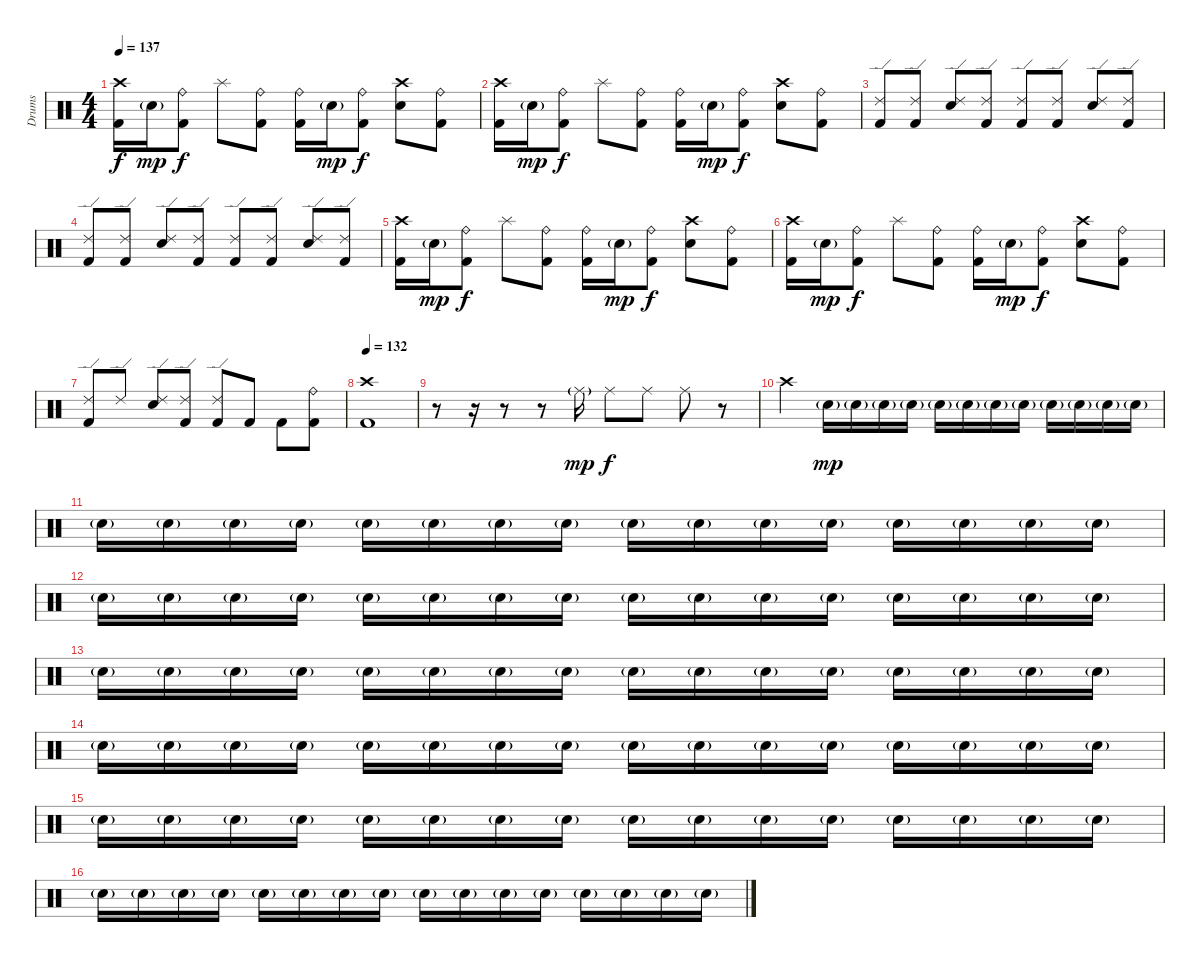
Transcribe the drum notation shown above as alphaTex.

\track ("Drums" "Drums") {instrument percussion}
\staff {score}
\articulation defaults
\ts (4 4)
\tempo 137
\clef neutral
\ks c
("Crash high (hit)" "Kick (hit) 2").16{dy f} "Snare (hit) 2"{g}.16{dy mp} ("Ride (bell)" "Kick (hit) 2").8{dy f} "Splash (hit)".8 ("Ride (bell)" "Kick (hit) 2").8 ("Ride (bell)" "Kick (hit) 2").16 "Snare (hit) 2"{g}.16{dy mp} ("Ride (bell)" "Kick (hit) 2").8{dy f} ("Crash high (hit)" "Snare (hit) 2").8 ("Ride (bell)" "Kick (hit) 2").8 |
("Crash high (hit)" "Kick (hit) 2").16 "Snare (hit) 2"{g}.16{dy mp} ("Ride (bell)" "Kick (hit) 2").8{dy f} "Splash (hit)".8 ("Ride (bell)" "Kick (hit) 2").8 ("Ride (bell)" "Kick (hit) 2").16 "Snare (hit) 2"{g}.16{dy mp} ("Ride (bell)" "Kick (hit) 2").8{dy f} ("Crash high (hit)" "Snare (hit) 2").8 ("Ride (bell)" "Kick (hit) 2").8 |
("Ride (edge) 2" "Kick (hit) 2").8 ("Ride (edge) 2" "Kick (hit) 2").8 ("Ride (edge) 2" "Snare (hit) 2").8 ("Ride (edge) 2" "Kick (hit) 2").8 ("Ride (edge) 2" "Kick (hit) 2").8 ("Ride (edge) 2" "Kick (hit) 2").8 ("Ride (edge) 2" "Snare (hit) 2").8 ("Ride (edge) 2" "Kick (hit) 2").8 |
("Ride (edge) 2" "Kick (hit) 2").8 ("Ride (edge) 2" "Kick (hit) 2").8 ("Ride (edge) 2" "Snare (hit) 2").8 ("Ride (edge) 2" "Kick (hit) 2").8 ("Ride (edge) 2" "Kick (hit) 2").8 ("Ride (edge) 2" "Kick (hit) 2").8 ("Ride (edge) 2" "Snare (hit) 2").8 ("Ride (edge) 2" "Kick (hit) 2").8 |
("Crash high (hit)" "Kick (hit) 2").16 "Snare (hit) 2"{g}.16{dy mp} ("Ride (bell)" "Kick (hit) 2").8{dy f} "Splash (hit)".8 ("Ride (bell)" "Kick (hit) 2").8 ("Ride (bell)" "Kick (hit) 2").16 "Snare (hit) 2"{g}.16{dy mp} ("Ride (bell)" "Kick (hit) 2").8{dy f} ("Crash high (hit)" "Snare (hit) 2").8 ("Ride (bell)" "Kick (hit) 2").8 |
("Crash high (hit)" "Kick (hit) 2").16 "Snare (hit) 2"{g}.16{dy mp} ("Ride (bell)" "Kick (hit) 2").8{dy f} "Splash (hit)".8 ("Ride (bell)" "Kick (hit) 2").8 ("Ride (bell)" "Kick (hit) 2").16 "Snare (hit) 2"{g}.16{dy mp} ("Ride (bell)" "Kick (hit) 2").8{dy f} ("Crash high (hit)" "Snare (hit) 2").8 ("Ride (bell)" "Kick (hit) 2").8 |
("Ride (edge) 2" "Kick (hit) 2").8 "Ride (edge) 2".8 ("Ride (edge) 2" "Snare (hit) 2").8 ("Ride (edge) 2" "Kick (hit) 2").8 ("Ride (edge) 2" "Kick (hit) 2").8 "Kick (hit) 2".8 "Kick (hit) 2".8 ("Ride (bell)" "Kick (hit) 2").8 |
\tempo 132
("Crash high (hit)" "Kick (hit) 2").1 |
r.8 r.16 r.8 r.8 "Ride (middle)"{g}.16{dy mp} "Ride (middle)".8{dy f} "Ride (middle)".8 "Ride (middle)".8 r.8 |
"Crash high (hit)".4 "Snare (hit) 2"{g}.16{dy mp volume 8} "Snare (hit) 2"{g}.16 "Snare (hit) 2"{g}.16 "Snare (hit) 2"{g}.16 "Snare (hit) 2"{g}.16 "Snare (hit) 2"{g}.16 "Snare (hit) 2"{g}.16 "Snare (hit) 2"{g}.16 "Snare (hit) 2"{g}.16 "Snare (hit) 2"{g}.16 "Snare (hit) 2"{g}.16 "Snare (hit) 2"{g}.16 |
"Snare (hit) 2"{g}.16 "Snare (hit) 2"{g}.16 "Snare (hit) 2"{g}.16 "Snare (hit) 2"{g}.16 "Snare (hit) 2"{g}.16 "Snare (hit) 2"{g}.16 "Snare (hit) 2"{g}.16 "Snare (hit) 2"{g}.16 "Snare (hit) 2"{g}.16 "Snare (hit) 2"{g}.16 "Snare (hit) 2"{g}.16 "Snare (hit) 2"{g}.16 "Snare (hit) 2"{g}.16 "Snare (hit) 2"{g}.16 "Snare (hit) 2"{g}.16 "Snare (hit) 2"{g}.16 |
"Snare (hit) 2"{g}.16 "Snare (hit) 2"{g}.16 "Snare (hit) 2"{g}.16 "Snare (hit) 2"{g}.16 "Snare (hit) 2"{g}.16 "Snare (hit) 2"{g}.16 "Snare (hit) 2"{g}.16 "Snare (hit) 2"{g}.16 "Snare (hit) 2"{g}.16 "Snare (hit) 2"{g}.16 "Snare (hit) 2"{g}.16 "Snare (hit) 2"{g}.16 "Snare (hit) 2"{g}.16 "Snare (hit) 2"{g}.16 "Snare (hit) 2"{g}.16 "Snare (hit) 2"{g}.16 |
"Snare (hit) 2"{g}.16 "Snare (hit) 2"{g}.16 "Snare (hit) 2"{g}.16 "Snare (hit) 2"{g}.16 "Snare (hit) 2"{g}.16 "Snare (hit) 2"{g}.16 "Snare (hit) 2"{g}.16 "Snare (hit) 2"{g}.16 "Snare (hit) 2"{g}.16 "Snare (hit) 2"{g}.16 "Snare (hit) 2"{g}.16 "Snare (hit) 2"{g}.16 "Snare (hit) 2"{g}.16 "Snare (hit) 2"{g}.16 "Snare (hit) 2"{g}.16 "Snare (hit) 2"{g}.16 |
"Snare (hit) 2"{g}.16 "Snare (hit) 2"{g}.16 "Snare (hit) 2"{g}.16 "Snare (hit) 2"{g}.16 "Snare (hit) 2"{g}.16 "Snare (hit) 2"{g}.16 "Snare (hit) 2"{g}.16 "Snare (hit) 2"{g}.16 "Snare (hit) 2"{g}.16 "Snare (hit) 2"{g}.16 "Snare (hit) 2"{g}.16 "Snare (hit) 2"{g}.16 "Snare (hit) 2"{g}.16 "Snare (hit) 2"{g}.16 "Snare (hit) 2"{g}.16 "Snare (hit) 2"{g}.16 |
"Snare (hit) 2"{g}.16 "Snare (hit) 2"{g}.16 "Snare (hit) 2"{g}.16 "Snare (hit) 2"{g}.16 "Snare (hit) 2"{g}.16 "Snare (hit) 2"{g}.16 "Snare (hit) 2"{g}.16 "Snare (hit) 2"{g}.16 "Snare (hit) 2"{g}.16 "Snare (hit) 2"{g}.16 "Snare (hit) 2"{g}.16 "Snare (hit) 2"{g}.16 "Snare (hit) 2"{g}.16 "Snare (hit) 2"{g}.16 "Snare (hit) 2"{g}.16 "Snare (hit) 2"{g}.16 |
"Snare (hit) 2"{g}.16 "Snare (hit) 2"{g}.16 "Snare (hit) 2"{g}.16 "Snare (hit) 2"{g}.16 "Snare (hit) 2"{g}.16 "Snare (hit) 2"{g}.16 "Snare (hit) 2"{g}.16 "Snare (hit) 2"{g}.16 "Snare (hit) 2"{g}.16 "Snare (hit) 2"{g}.16 "Snare (hit) 2"{g}.16 "Snare (hit) 2"{g}.16 "Snare (hit) 2"{g}.16 "Snare (hit) 2"{g}.16 "Snare (hit) 2"{g}.16 "Snare (hit) 2"{g}.16
